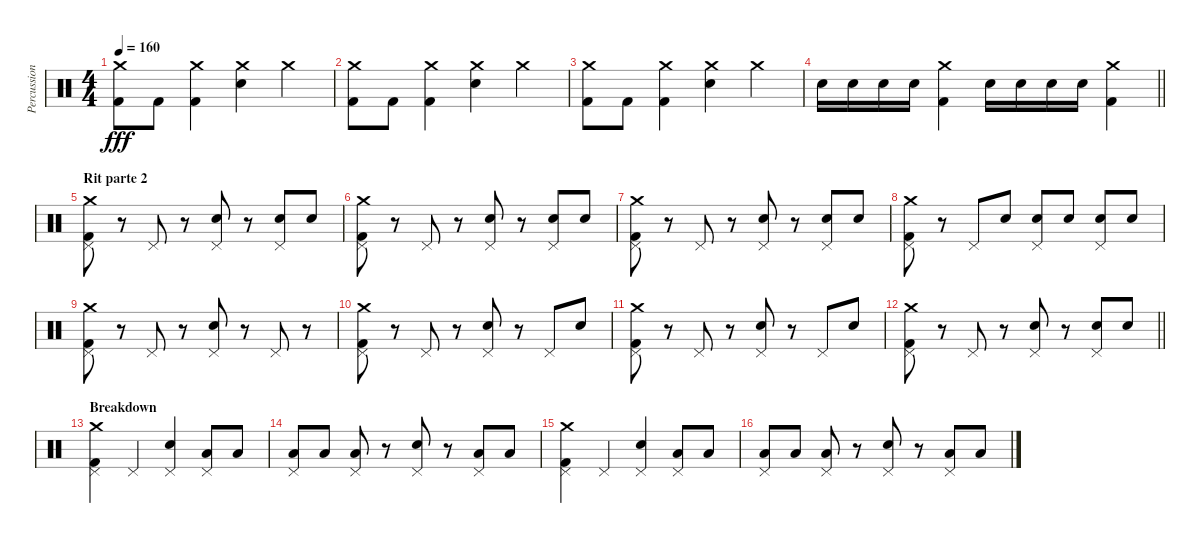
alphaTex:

\track ("Percussioni" "Percussion") {instrument percussion}
\staff {score}
\articulation defaults
\ts (4 4)
\tempo 160
\clef neutral
\ks c
("Crash medium (hit)" "Kick (hit) 2").8{dy fff} "Kick (hit) 2".8 ("Crash medium (hit)" "Kick (hit) 2").4 ("Crash medium (hit)" "Snare (hit) 2").4 "Crash medium (hit)".4 |
("Crash medium (hit)" "Kick (hit) 2").8 "Kick (hit) 2".8 ("Crash medium (hit)" "Kick (hit) 2").4 ("Crash medium (hit)" "Snare (hit) 2").4 "Crash medium (hit)".4 |
("Crash medium (hit)" "Kick (hit) 2").8 "Kick (hit) 2".8 ("Crash medium (hit)" "Kick (hit) 2").4 ("Crash medium (hit)" "Snare (hit) 2").4 "Crash medium (hit)".4 |
\barLineRight lightlight "Snare (hit) 2".16 "Snare (hit) 2".16 "Snare (hit) 2".16 "Snare (hit) 2".16
("Crash medium (hit)" "Kick (hit) 2").4 "Snare (hit) 2".16 "Snare (hit) 2".16 "Snare (hit) 2".16 "Snare (hit) 2".16 ("Crash medium (hit)" "Kick (hit) 2").4 |
\section ("" "Rit parte 2")
("Crash medium (hit)" "Pedal Hi-Hat (hit)" "Kick (hit) 2").8 r.8 "Pedal Hi-Hat (hit)".8 r.8 ("Pedal Hi-Hat (hit)" "Snare (hit) 2").8 r.8 ("Pedal Hi-Hat (hit)" "Snare (hit) 2").8 "Snare (hit) 2".8 |
("Crash medium (hit)" "Pedal Hi-Hat (hit)" "Kick (hit) 2").8 r.8 "Pedal Hi-Hat (hit)".8 r.8 ("Pedal Hi-Hat (hit)" "Snare (hit) 2").8 r.8 ("Pedal Hi-Hat (hit)" "Snare (hit) 2").8 "Snare (hit) 2".8 |
("Crash medium (hit)" "Pedal Hi-Hat (hit)" "Kick (hit) 2").8 r.8 "Pedal Hi-Hat (hit)".8 r.8 ("Pedal Hi-Hat (hit)" "Snare (hit) 2").8 r.8 ("Pedal Hi-Hat (hit)" "Snare (hit) 2").8 "Snare (hit) 2".8 |
("Crash medium (hit)" "Pedal Hi-Hat (hit)" "Kick (hit) 2").8 r.8 "Pedal Hi-Hat (hit)".8 "Snare (hit) 2".8 ("Pedal Hi-Hat (hit)" "Snare (hit) 2").8 "Snare (hit) 2".8 ("Pedal Hi-Hat (hit)" "Snare (hit) 2").8 "Snare (hit) 2".8 |
("Crash medium (hit)" "Pedal Hi-Hat (hit)" "Kick (hit) 2").8 r.8 "Pedal Hi-Hat (hit)".8 r.8 ("Pedal Hi-Hat (hit)" "Snare (hit) 2").8 r.8 "Pedal Hi-Hat (hit)".8 r.8 |
("Crash medium (hit)" "Pedal Hi-Hat (hit)" "Kick (hit) 2").8 r.8 "Pedal Hi-Hat (hit)".8 r.8 ("Pedal Hi-Hat (hit)" "Snare (hit) 2").8 r.8 "Pedal Hi-Hat (hit)".8 "Snare (hit) 2".8 |
("Crash medium (hit)" "Pedal Hi-Hat (hit)" "Kick (hit) 2").8 r.8 "Pedal Hi-Hat (hit)".8 r.8 ("Pedal Hi-Hat (hit)" "Snare (hit) 2").8 r.8 "Pedal Hi-Hat (hit)".8 "Snare (hit) 2".8 |
\barLineRight lightlight
("Crash medium (hit)" "Pedal Hi-Hat (hit)" "Kick (hit) 2").8 r.8 "Pedal Hi-Hat (hit)".8 r.8 ("Pedal Hi-Hat (hit)" "Snare (hit) 2").8 r.8 ("Pedal Hi-Hat (hit)" "Snare (hit) 2").8 "Snare (hit) 2".8 |
\section ("" "Breakdown")
("Crash medium (hit)" "Pedal Hi-Hat (hit)" "Kick (hit) 2").4 "Pedal Hi-Hat (hit)".4 ("Pedal Hi-Hat (hit)" "Snare (hit) 2").4 ("Pedal Hi-Hat (hit)" "Low Floor Tom (hit)").8 "Low Tom (hit)".8 |
("Pedal Hi-Hat (hit)" "Low Floor Tom (hit)").8 "Low Tom (hit)".8 ("Pedal Hi-Hat (hit)" "Low Floor Tom (hit)").8 r.8 ("Pedal Hi-Hat (hit)" "Snare (hit) 2").8 r.8 ("Pedal Hi-Hat (hit)" "Low Tom (hit)").8 "Low Floor Tom (hit)".8 |
("Crash medium (hit)" "Pedal Hi-Hat (hit)" "Kick (hit) 2").4 "Pedal Hi-Hat (hit)".4 ("Pedal Hi-Hat (hit)" "Snare (hit) 2").4 ("Pedal Hi-Hat (hit)" "Low Floor Tom (hit)").8 "Low Tom (hit)".8 |
("Pedal Hi-Hat (hit)" "Low Floor Tom (hit)").8 "Low Tom (hit)".8 ("Pedal Hi-Hat (hit)" "Low Floor Tom (hit)").8 r.8 ("Pedal Hi-Hat (hit)" "Snare (hit) 2").8 r.8 ("Pedal Hi-Hat (hit)" "Low Tom (hit)").8 "Low Floor Tom (hit)".8
